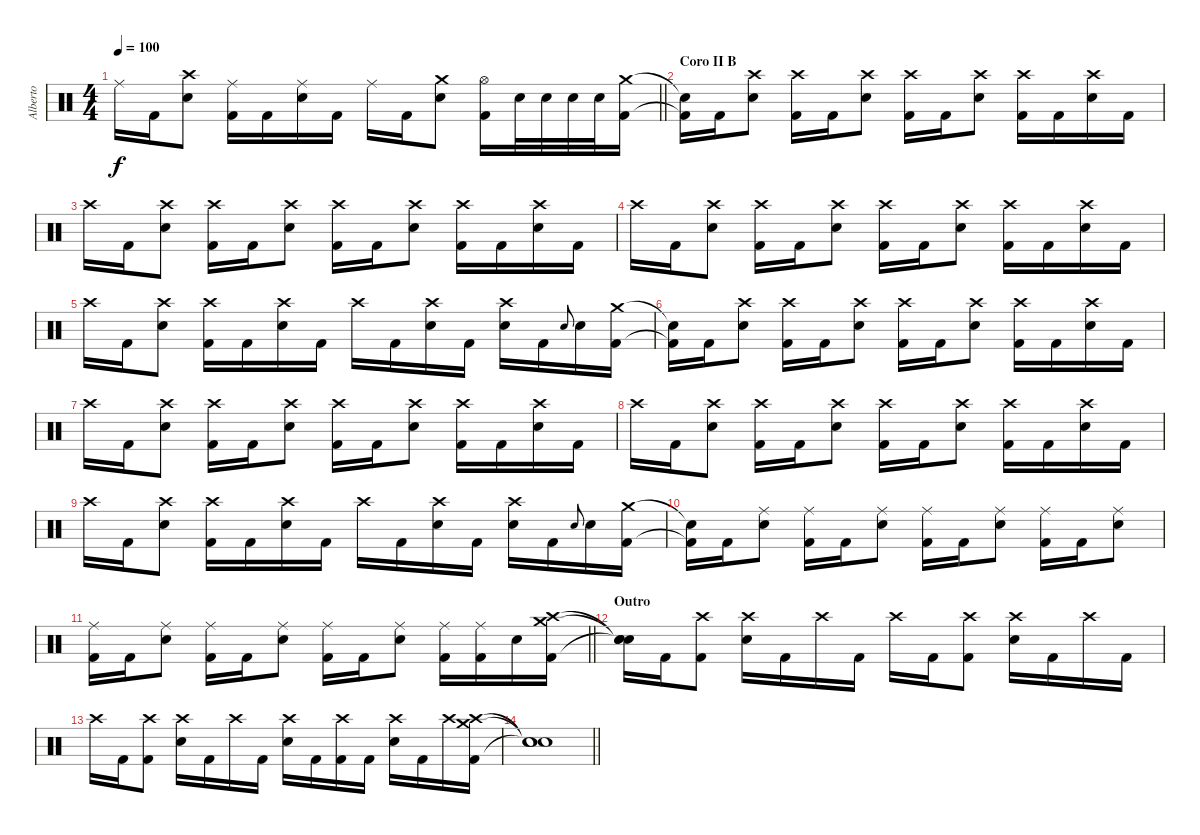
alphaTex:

\track ("Alberto" "Alberto") {instrument percussion}
\staff
\articulation defaults
\ts (4 4)
\tempo 100
\clef neutral
\barLineRight lightlight
\ks c "Ride (middle)".16{dy f} "Kick (hit) 2".16
("Crash high (hit)" "Electric Snare (hit)").8 ("Ride (middle)" "Kick (hit) 2").16 "Kick (hit) 2".16 ("Ride (middle)" "Electric Snare (hit)").16 "Kick (hit) 2".16 "Ride (middle)".16 "Kick (hit) 2".16 ("Crash medium (hit)" "Electric Snare (hit)").8 ("Hi-Hat (open)" "Kick (hit) 2").16 "Electric Snare (hit)".32 "Electric Snare (hit)".32 "Electric Snare (hit)".32 "Electric Snare (hit)".32 ("Crash medium (hit)" "Kick (hit) 2").16 |
\section ("" "Coro II B")
("Snare (hit)"{t} "Kick (hit) 2"{t}).16 "Kick (hit) 2".16 ("Crash high (hit)" "Electric Snare (hit)").8 ("Crash high (hit)" "Kick (hit) 2").16 "Kick (hit) 2".16 ("Crash high (hit)" "Electric Snare (hit)").8 ("Crash high (hit)" "Kick (hit) 2").16 "Kick (hit) 2".16 ("Crash high (hit)" "Electric Snare (hit)").8 ("Crash high (hit)" "Kick (hit) 2").16 "Kick (hit) 2".16 ("Crash high (hit)" "Electric Snare (hit)").16 "Kick (hit) 2".16 |
"Crash high (hit)".16 "Kick (hit) 2".16 ("Crash high (hit)" "Electric Snare (hit)").8 ("Crash high (hit)" "Kick (hit) 2").16 "Kick (hit) 2".16 ("Crash high (hit)" "Electric Snare (hit)").8 ("Crash high (hit)" "Kick (hit) 2").16 "Kick (hit) 2".16 ("Crash high (hit)" "Electric Snare (hit)").8 ("Crash high (hit)" "Kick (hit) 2").16 "Kick (hit) 2".16 ("Crash high (hit)" "Electric Snare (hit)").16 "Kick (hit) 2".16 |
"Crash high (hit)".16 "Kick (hit) 2".16 ("Crash high (hit)" "Electric Snare (hit)").8 ("Crash high (hit)" "Kick (hit) 2").16 "Kick (hit) 2".16 ("Crash high (hit)" "Electric Snare (hit)").8 ("Crash high (hit)" "Kick (hit) 2").16 "Kick (hit) 2".16 ("Crash high (hit)" "Electric Snare (hit)").8 ("Crash high (hit)" "Kick (hit) 2").16 "Kick (hit) 2".16 ("Crash high (hit)" "Electric Snare (hit)").16 "Kick (hit) 2".16 |
"Crash high (hit)".16 "Kick (hit) 2".16 ("Crash high (hit)" "Electric Snare (hit)").8 ("Crash high (hit)" "Kick (hit) 2").16 "Kick (hit) 2".16 ("Crash high (hit)" "Electric Snare (hit)").16 "Kick (hit) 2".16 "Crash high (hit)".16 "Kick (hit) 2".16 ("Crash high (hit)" "Electric Snare (hit)").16 "Kick (hit) 2".16 ("Crash high (hit)" "Electric Snare (hit)").16 "Kick (hit) 2".16 "Electric Snare (hit)".8{gr onbeat} "Electric Snare (hit)".16 ("Crash medium (hit)" "Kick (hit) 2").16 |
("Snare (hit)"{t} "Kick (hit) 2"{t}).16 "Kick (hit) 2".16 ("Crash high (hit)" "Electric Snare (hit)").8 ("Crash high (hit)" "Kick (hit) 2").16 "Kick (hit) 2".16 ("Crash high (hit)" "Electric Snare (hit)").8 ("Crash high (hit)" "Kick (hit) 2").16 "Kick (hit) 2".16 ("Crash high (hit)" "Electric Snare (hit)").8 ("Crash high (hit)" "Kick (hit) 2").16 "Kick (hit) 2".16 ("Crash high (hit)" "Electric Snare (hit)").16 "Kick (hit) 2".16 |
"Crash high (hit)".16 "Kick (hit) 2".16 ("Crash high (hit)" "Electric Snare (hit)").8 ("Crash high (hit)" "Kick (hit) 2").16 "Kick (hit) 2".16 ("Crash high (hit)" "Electric Snare (hit)").8 ("Crash high (hit)" "Kick (hit) 2").16 "Kick (hit) 2".16 ("Crash high (hit)" "Electric Snare (hit)").8 ("Crash high (hit)" "Kick (hit) 2").16 "Kick (hit) 2".16 ("Crash high (hit)" "Electric Snare (hit)").16 "Kick (hit) 2".16 |
"Crash high (hit)".16 "Kick (hit) 2".16 ("Crash high (hit)" "Electric Snare (hit)").8 ("Crash high (hit)" "Kick (hit) 2").16 "Kick (hit) 2".16 ("Crash high (hit)" "Electric Snare (hit)").8 ("Crash high (hit)" "Kick (hit) 2").16 "Kick (hit) 2".16 ("Crash high (hit)" "Electric Snare (hit)").8 ("Crash high (hit)" "Kick (hit) 2").16 "Kick (hit) 2".16 ("Crash high (hit)" "Electric Snare (hit)").16 "Kick (hit) 2".16 |
"Crash high (hit)".16 "Kick (hit) 2".16 ("Crash high (hit)" "Electric Snare (hit)").8 ("Crash high (hit)" "Kick (hit) 2").16 "Kick (hit) 2".16 ("Crash high (hit)" "Electric Snare (hit)").16 "Kick (hit) 2".16 "Crash high (hit)".16 "Kick (hit) 2".16 ("Crash high (hit)" "Electric Snare (hit)").16 "Kick (hit) 2".16 ("Crash high (hit)" "Electric Snare (hit)").16 "Kick (hit) 2".16 "Electric Snare (hit)".8{gr onbeat} "Electric Snare (hit)".16 ("Crash medium (hit)" "Kick (hit) 2").16 |
("Snare (hit)"{t} "Kick (hit) 2"{t}).16 "Kick (hit) 2".16 ("Ride (middle)" "Electric Snare (hit)").8 ("Ride (middle)" "Kick (hit) 2").16 "Kick (hit) 2".16 ("Ride (middle)" "Electric Snare (hit)").8 ("Ride (middle)" "Kick (hit) 2").16 "Kick (hit) 2".16 ("Ride (middle)" "Electric Snare (hit)").8 ("Ride (middle)" "Kick (hit) 2").16 "Kick (hit) 2".16 ("Ride (middle)" "Electric Snare (hit)").8 |
\barLineRight lightlight
("Ride (middle)" "Kick (hit) 2").16 "Kick (hit) 2".16 ("Ride (middle)" "Electric Snare (hit)").8 ("Ride (middle)" "Kick (hit) 2").16 "Kick (hit) 2".16 ("Ride (middle)" "Electric Snare (hit)").8 ("Ride (middle)" "Kick (hit) 2").16 "Kick (hit) 2".16 ("Ride (middle)" "Electric Snare (hit)").8 ("Ride (middle)" "Kick (hit) 2").16 ("Ride (middle)" "Kick (hit) 2").16 "Electric Snare (hit)".16 ("Crash medium (hit)" "Crash high (hit)" "Kick (hit) 2").16 |
\section ("" "Outro")
("Snare (hit)"{t} "Snare (hit)"{t} "Snare (hit)"{t}).16 "Kick (hit) 2".16 ("Crash high (hit)" "Kick (hit) 2").8 ("Crash high (hit)" "Electric Snare (hit)").16 "Kick (hit) 2".16 "Crash high (hit)".16 "Kick (hit) 2".16 "Crash high (hit)".16 "Kick (hit) 2".16 ("Crash high (hit)" "Kick (hit) 2").8 ("Crash high (hit)" "Electric Snare (hit)").16 "Kick (hit) 2".16 "Crash high (hit)".16 "Kick (hit) 2".16 |
"Crash high (hit)".16 "Kick (hit) 2".16 ("Crash high (hit)" "Kick (hit) 2").8 ("Crash high (hit)" "Electric Snare (hit)").16 "Kick (hit) 2".16 "Crash high (hit)".16 "Kick (hit) 2".16 ("Crash high (hit)" "Electric Snare (hit)").16 "Kick (hit) 2".16 ("Crash high (hit)" "Kick (hit) 2").16 "Kick (hit) 2".16 ("Crash high (hit)" "Electric Snare (hit)").16 "Kick (hit) 2".16 "Crash high (hit)".16 ("Crash medium (hit)" "Crash high (hit)" "Kick (hit) 2").16 |
\barLineRight lightlight
("Snare (hit)"{t} "Snare (hit)"{t} "Snare (hit)"{t}).1
